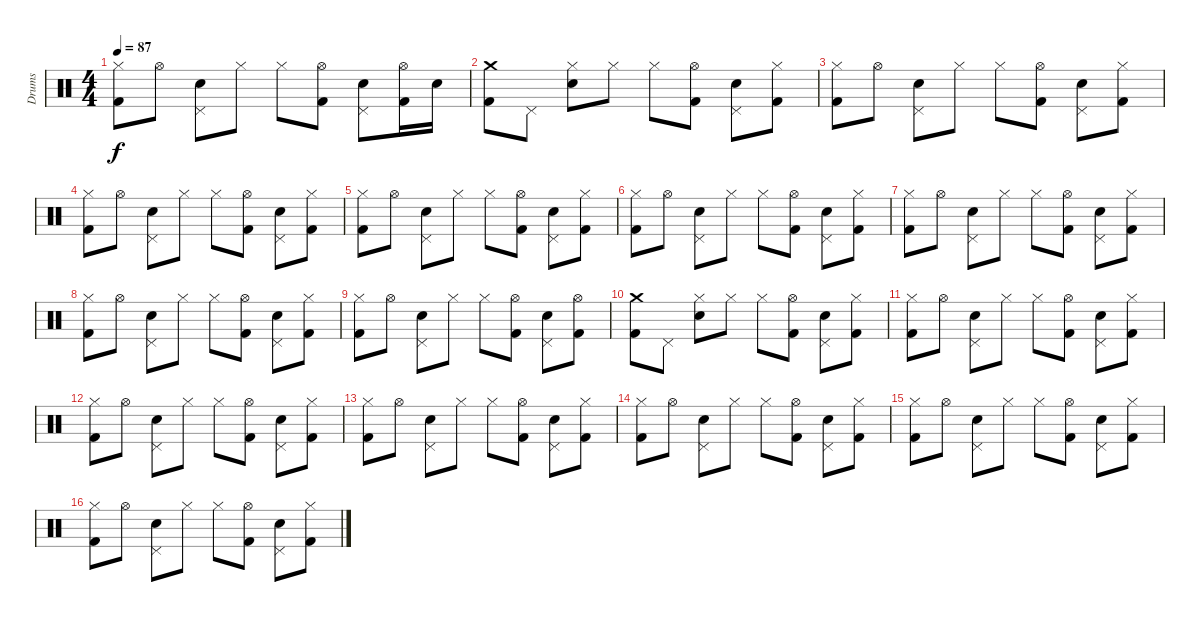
\track ("Drums" "Drums") {instrument percussion}
\staff {score}
\articulation defaults
\ts (4 4)
\tempo 87
\clef neutral
\ks c
("Hi-Hat (closed)" "Kick (hit) 2").8{dy f} "Hi-Hat (open)".8 ("Pedal Hi-Hat (hit)" "Electric Snare (hit)").8 "Hi-Hat (closed)".8 "Hi-Hat (closed)".8 ("Hi-Hat (open)" "Kick (hit) 2").8 ("Pedal Hi-Hat (hit)" "Electric Snare (hit)").8 ("Hi-Hat (open)" "Kick (hit) 2").16 "Electric Snare (hit)".16 |
("Crash medium (hit)" "Kick (hit) 2").8 "Pedal Hi-Hat (hit)".8 ("Hi-Hat (closed)" "Electric Snare (hit)").8 "Hi-Hat (closed)".8 "Hi-Hat (closed)".8 ("Hi-Hat (open)" "Kick (hit) 2").8 ("Pedal Hi-Hat (hit)" "Electric Snare (hit)").8 ("Hi-Hat (closed)" "Kick (hit) 2").8 |
("Hi-Hat (closed)" "Kick (hit) 2").8 "Hi-Hat (open)".8 ("Pedal Hi-Hat (hit)" "Electric Snare (hit)").8 "Hi-Hat (closed)".8 "Hi-Hat (closed)".8 ("Hi-Hat (open)" "Kick (hit) 2").8 ("Pedal Hi-Hat (hit)" "Electric Snare (hit)").8 ("Hi-Hat (closed)" "Kick (hit) 2").8 |
("Hi-Hat (closed)" "Kick (hit) 2").8 "Hi-Hat (open)".8 ("Pedal Hi-Hat (hit)" "Electric Snare (hit)").8 "Hi-Hat (closed)".8 "Hi-Hat (closed)".8 ("Hi-Hat (open)" "Kick (hit) 2").8 ("Pedal Hi-Hat (hit)" "Electric Snare (hit)").8 ("Hi-Hat (closed)" "Kick (hit) 2").8 |
("Hi-Hat (closed)" "Kick (hit) 2").8 "Hi-Hat (open)".8 ("Pedal Hi-Hat (hit)" "Electric Snare (hit)").8 "Hi-Hat (closed)".8 "Hi-Hat (closed)".8 ("Hi-Hat (open)" "Kick (hit) 2").8 ("Pedal Hi-Hat (hit)" "Electric Snare (hit)").8 ("Hi-Hat (closed)" "Kick (hit) 2").8 |
("Hi-Hat (closed)" "Kick (hit) 2").8 "Hi-Hat (open)".8 ("Pedal Hi-Hat (hit)" "Electric Snare (hit)").8 "Hi-Hat (closed)".8 "Hi-Hat (closed)".8 ("Hi-Hat (open)" "Kick (hit) 2").8 ("Pedal Hi-Hat (hit)" "Electric Snare (hit)").8 ("Hi-Hat (closed)" "Kick (hit) 2").8 |
("Hi-Hat (closed)" "Kick (hit) 2").8 "Hi-Hat (open)".8 ("Pedal Hi-Hat (hit)" "Electric Snare (hit)").8 "Hi-Hat (closed)".8 "Hi-Hat (closed)".8 ("Hi-Hat (open)" "Kick (hit) 2").8 ("Pedal Hi-Hat (hit)" "Electric Snare (hit)").8 ("Hi-Hat (closed)" "Kick (hit) 2").8 |
("Hi-Hat (closed)" "Kick (hit) 2").8 "Hi-Hat (open)".8 ("Pedal Hi-Hat (hit)" "Electric Snare (hit)").8 "Hi-Hat (closed)".8 "Hi-Hat (closed)".8 ("Hi-Hat (open)" "Kick (hit) 2").8 ("Pedal Hi-Hat (hit)" "Electric Snare (hit)").8 ("Hi-Hat (closed)" "Kick (hit) 2").8 |
("Hi-Hat (closed)" "Kick (hit) 2").8 "Hi-Hat (open)".8 ("Pedal Hi-Hat (hit)" "Electric Snare (hit)").8 "Hi-Hat (closed)".8 "Hi-Hat (closed)".8 ("Hi-Hat (open)" "Kick (hit) 2").8 ("Pedal Hi-Hat (hit)" "Electric Snare (hit)").8 ("Hi-Hat (open)" "Kick (hit) 2").8 |
("Crash medium (hit)" "Kick (hit) 2").8 "Pedal Hi-Hat (hit)".8 ("Hi-Hat (closed)" "Electric Snare (hit)").8 "Hi-Hat (closed)".8 "Hi-Hat (closed)".8 ("Hi-Hat (open)" "Kick (hit) 2").8 ("Pedal Hi-Hat (hit)" "Electric Snare (hit)").8 ("Hi-Hat (closed)" "Kick (hit) 2").8 |
("Hi-Hat (closed)" "Kick (hit) 2").8 "Hi-Hat (open)".8 ("Pedal Hi-Hat (hit)" "Electric Snare (hit)").8 "Hi-Hat (closed)".8 "Hi-Hat (closed)".8 ("Hi-Hat (open)" "Kick (hit) 2").8 ("Pedal Hi-Hat (hit)" "Electric Snare (hit)").8 ("Hi-Hat (closed)" "Kick (hit) 2").8 |
("Hi-Hat (closed)" "Kick (hit) 2").8 "Hi-Hat (open)".8 ("Pedal Hi-Hat (hit)" "Electric Snare (hit)").8 "Hi-Hat (closed)".8 "Hi-Hat (closed)".8 ("Hi-Hat (open)" "Kick (hit) 2").8 ("Pedal Hi-Hat (hit)" "Electric Snare (hit)").8 ("Hi-Hat (closed)" "Kick (hit) 2").8 |
("Hi-Hat (closed)" "Kick (hit) 2").8 "Hi-Hat (open)".8 ("Pedal Hi-Hat (hit)" "Electric Snare (hit)").8 "Hi-Hat (closed)".8 "Hi-Hat (closed)".8 ("Hi-Hat (open)" "Kick (hit) 2").8 ("Pedal Hi-Hat (hit)" "Electric Snare (hit)").8 ("Hi-Hat (closed)" "Kick (hit) 2").8 |
("Hi-Hat (closed)" "Kick (hit) 2").8 "Hi-Hat (open)".8 ("Pedal Hi-Hat (hit)" "Electric Snare (hit)").8 "Hi-Hat (closed)".8 "Hi-Hat (closed)".8 ("Hi-Hat (open)" "Kick (hit) 2").8 ("Pedal Hi-Hat (hit)" "Electric Snare (hit)").8 ("Hi-Hat (closed)" "Kick (hit) 2").8 |
("Hi-Hat (closed)" "Kick (hit) 2").8 "Hi-Hat (open)".8 ("Pedal Hi-Hat (hit)" "Electric Snare (hit)").8 "Hi-Hat (closed)".8 "Hi-Hat (closed)".8 ("Hi-Hat (open)" "Kick (hit) 2").8 ("Pedal Hi-Hat (hit)" "Electric Snare (hit)").8 ("Hi-Hat (closed)" "Kick (hit) 2").8 |
("Hi-Hat (closed)" "Kick (hit) 2").8 "Hi-Hat (open)".8 ("Pedal Hi-Hat (hit)" "Electric Snare (hit)").8 "Hi-Hat (closed)".8 "Hi-Hat (closed)".8 ("Hi-Hat (open)" "Kick (hit) 2").8 ("Pedal Hi-Hat (hit)" "Electric Snare (hit)").8 ("Hi-Hat (closed)" "Kick (hit) 2").8
